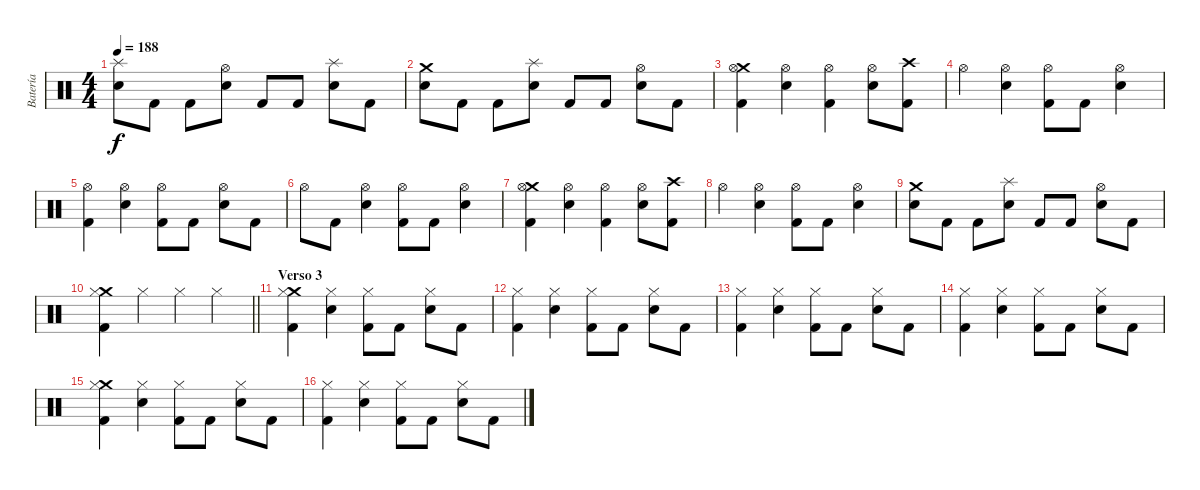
\track ("Batería" "Batería") {instrument percussion}
\staff {score}
\articulation defaults
\ts (4 4)
\tempo 188
\clef neutral
\ks c
("Splash (hit)" "Electric Snare (hit)").8{dy f} "Kick (hit) 2".8 "Kick (hit) 2".8 ("Hi-Hat (open)" "Electric Snare (hit)").8 "Kick (hit) 2".8 "Kick (hit) 2".8 ("Splash (hit)" "Electric Snare (hit)").8 "Kick (hit) 2".8 |
("Crash medium (hit)" "Electric Snare (hit)").8 "Kick (hit) 2".8 "Kick (hit) 2".8 ("Splash (hit)" "Electric Snare (hit)").8 "Kick (hit) 2".8 "Kick (hit) 2".8 ("Hi-Hat (open)" "Electric Snare (hit)").8 "Kick (hit) 2".8 |
("Crash medium (hit)" "Hi-Hat (open)" "Kick (hit) 2").4 ("Hi-Hat (open)" "Electric Snare (hit)").4 ("Hi-Hat (open)" "Kick (hit) 2").4 ("Hi-Hat (open)" "Electric Snare (hit)").8 ("Crash high (hit)" "Kick (hit) 2").8 |
"Hi-Hat (open)".4 ("Hi-Hat (open)" "Electric Snare (hit)").4 ("Hi-Hat (open)" "Kick (hit) 2").8 "Kick (hit) 2".8 ("Hi-Hat (open)" "Electric Snare (hit)").4 |
("Hi-Hat (open)" "Kick (hit) 2").4 ("Hi-Hat (open)" "Electric Snare (hit)").4 ("Hi-Hat (open)" "Kick (hit) 2").8 "Kick (hit) 2".8 ("Hi-Hat (open)" "Electric Snare (hit)").8 "Kick (hit) 2".8 |
"Hi-Hat (open)".8 "Kick (hit) 2".8 ("Hi-Hat (open)" "Electric Snare (hit)").4 ("Hi-Hat (open)" "Kick (hit) 2").8 "Kick (hit) 2".8 ("Hi-Hat (open)" "Electric Snare (hit)").4 |
("Crash medium (hit)" "Hi-Hat (open)" "Kick (hit) 2").4 ("Hi-Hat (open)" "Electric Snare (hit)").4 ("Hi-Hat (open)" "Kick (hit) 2").4 ("Hi-Hat (open)" "Electric Snare (hit)").8 ("Crash high (hit)" "Kick (hit) 2").8 |
"Hi-Hat (open)".4 ("Hi-Hat (open)" "Electric Snare (hit)").4 ("Hi-Hat (open)" "Kick (hit) 2").8 "Kick (hit) 2".8 ("Hi-Hat (open)" "Electric Snare (hit)").4 |
("Crash medium (hit)" "Electric Snare (hit)").8 "Kick (hit) 2".8 "Kick (hit) 2".8 ("Splash (hit)" "Electric Snare (hit)").8 "Kick (hit) 2".8 "Kick (hit) 2".8 ("Hi-Hat (open)" "Electric Snare (hit)").8 "Kick (hit) 2".8 |
\barLineRight lightlight
("Crash medium (hit)" "Hi-Hat (closed)" "Kick (hit) 2").4 "Hi-Hat (closed)".4 "Hi-Hat (closed)".4 "Hi-Hat (closed)".4 |
\section ("" "Verso 3")
("Crash medium (hit)" "Hi-Hat (closed)" "Kick (hit) 2").4 ("Hi-Hat (closed)" "Electric Snare (hit)").4 ("Hi-Hat (closed)" "Kick (hit) 2").8 "Kick (hit) 2".8 ("Hi-Hat (closed)" "Electric Snare (hit)").8 "Kick (hit) 2".8 |
("Hi-Hat (closed)" "Kick (hit) 2").4 ("Hi-Hat (closed)" "Electric Snare (hit)").4 ("Hi-Hat (closed)" "Kick (hit) 2").8 "Kick (hit) 2".8 ("Hi-Hat (closed)" "Electric Snare (hit)").8 "Kick (hit) 2".8 |
("Hi-Hat (closed)" "Kick (hit) 2").4 ("Hi-Hat (closed)" "Electric Snare (hit)").4 ("Hi-Hat (closed)" "Kick (hit) 2").8 "Kick (hit) 2".8 ("Hi-Hat (closed)" "Electric Snare (hit)").8 "Kick (hit) 2".8 |
("Hi-Hat (closed)" "Kick (hit) 2").4 ("Hi-Hat (closed)" "Electric Snare (hit)").4 ("Hi-Hat (closed)" "Kick (hit) 2").8 "Kick (hit) 2".8 ("Hi-Hat (closed)" "Electric Snare (hit)").8 "Kick (hit) 2".8 |
("Crash medium (hit)" "Hi-Hat (closed)" "Kick (hit) 2").4 ("Hi-Hat (closed)" "Electric Snare (hit)").4 ("Hi-Hat (closed)" "Kick (hit) 2").8 "Kick (hit) 2".8 ("Hi-Hat (closed)" "Electric Snare (hit)").8 "Kick (hit) 2".8 |
("Hi-Hat (closed)" "Kick (hit) 2").4 ("Hi-Hat (closed)" "Electric Snare (hit)").4 ("Hi-Hat (closed)" "Kick (hit) 2").8 "Kick (hit) 2".8 ("Hi-Hat (closed)" "Electric Snare (hit)").8 "Kick (hit) 2".8
